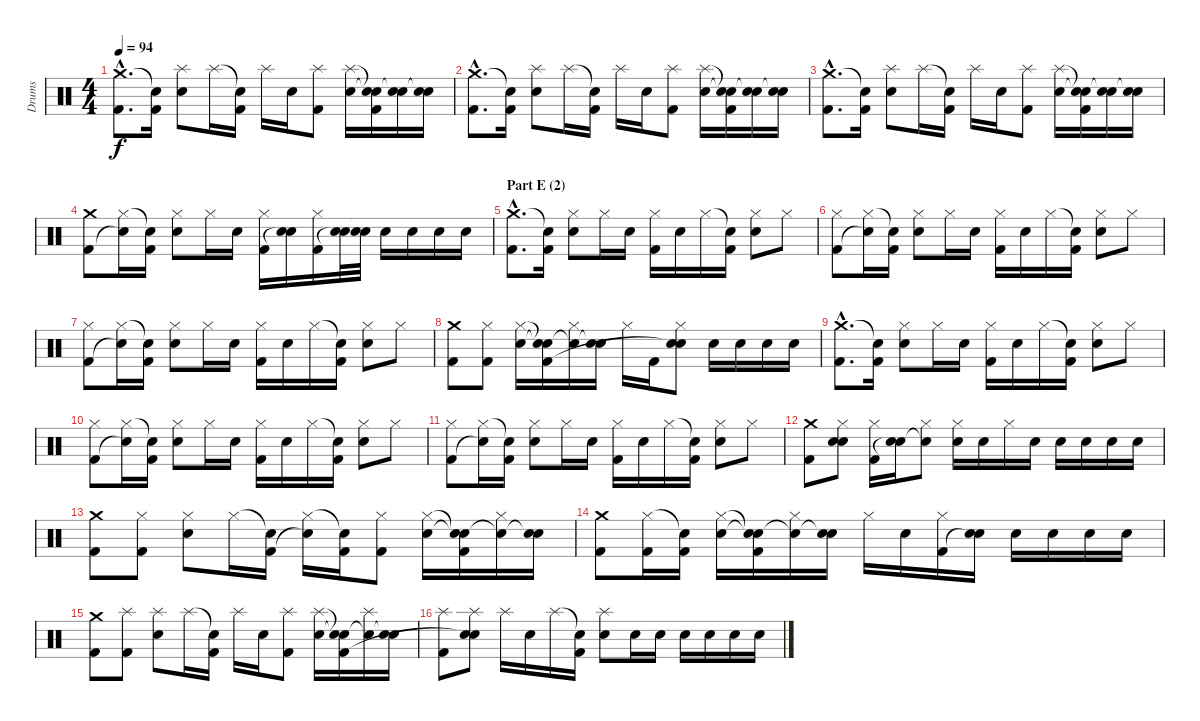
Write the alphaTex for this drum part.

\track ("Drums" "Drums") {instrument percussion}
\staff {score}
\articulation defaults
\ts (4 4)
\tempo 94
\clef neutral
\ks c
("Crash medium (hit)"{hac} "Kick (hit) 2"{hac}).8{d dy f} ("Snare (hit)"{t} "Kick (hit) 2").16 ("Splash (hit)" "Electric Snare (hit)").8 "Splash (hit)".16 ("Snare (hit)"{t} "Kick (hit) 2").16 "Splash (hit)".16 "Electric Snare (hit)".16 ("Splash (hit)" "Kick (hit) 2").8 ("Splash (hit)" "Electric Snare (hit)").16 ("Snare (hit)"{t} "Snare (hit)"{t} "Kick (hit) 2").16 ("Electric Snare (hit)" "Snare (hit)"{t}).16 ("Electric Snare (hit)" "Snare (hit)"{t}).16 |
("Crash medium (hit)"{hac} "Kick (hit) 2"{hac}).8{d} ("Snare (hit)"{t} "Kick (hit) 2").16 ("Splash (hit)" "Electric Snare (hit)").8 "Splash (hit)".16 ("Snare (hit)"{t} "Kick (hit) 2").16 "Splash (hit)".16 "Electric Snare (hit)".16 ("Splash (hit)" "Kick (hit) 2").8 ("Splash (hit)" "Electric Snare (hit)").16 ("Snare (hit)"{t} "Snare (hit)"{t} "Kick (hit) 2").16 ("Electric Snare (hit)" "Snare (hit)"{t}).16 ("Electric Snare (hit)" "Snare (hit)"{t}).16 |
("Crash medium (hit)"{hac} "Kick (hit) 2"{hac}).8{d} ("Snare (hit)"{t} "Kick (hit) 2").16 ("Splash (hit)" "Electric Snare (hit)").8 "Splash (hit)".16 ("Snare (hit)"{t} "Kick (hit) 2").16 "Splash (hit)".16 "Electric Snare (hit)".16 ("Splash (hit)" "Kick (hit) 2").8 ("Splash (hit)" "Electric Snare (hit)").16 ("Snare (hit)"{t} "Snare (hit)"{t} "Kick (hit) 2").16 ("Electric Snare (hit)" "Snare (hit)"{t}).16 ("Electric Snare (hit)" "Snare (hit)"{t}).16 |
("Crash medium (hit)" "Kick (hit) 2").8 ("Hi-Hat (closed)" "Snare (hit)"{t}).16 ("Snare (hit)"{t} "Kick (hit) 2").16 ("Hi-Hat (closed)" "Electric Snare (hit)").8 "Hi-Hat (closed)".16 "Electric Snare (hit)".16 ("Hi-Hat (closed)" "Kick (hit) 2").16 ("Electric Snare (hit)" "Snare (hit)"{t}).16 ("Hi-Hat (closed)" "Kick (hit) 2").16 ("Electric Snare (hit)" "Snare (hit)"{t}).32 ("Electric Snare (hit)" "Snare (hit)"{t}).32 "Electric Snare (hit)".16 "Electric Snare (hit)".16 "Electric Snare (hit)".16 "Electric Snare (hit)".16 |
\section ("" "Part E (2)")
("Crash medium (hit)"{hac} "Kick (hit) 2"{hac}).8{d} ("Snare (hit)"{t} "Kick (hit) 2").16 ("Hi-Hat (closed)" "Electric Snare (hit)").8 "Hi-Hat (closed)".16 "Electric Snare (hit)".16 ("Hi-Hat (closed)" "Kick (hit) 2").16 "Electric Snare (hit)".16 "Hi-Hat (closed)".16 ("Snare (hit)"{t} "Kick (hit) 2").16 ("Hi-Hat (closed)" "Electric Snare (hit)").8 "Hi-Hat (closed)".8 |
("Hi-Hat (closed)" "Kick (hit) 2").8 ("Hi-Hat (closed)" "Snare (hit)"{t}).16 ("Snare (hit)"{t} "Kick (hit) 2").16 ("Hi-Hat (closed)" "Electric Snare (hit)").8 "Hi-Hat (closed)".16 "Electric Snare (hit)".16 ("Hi-Hat (closed)" "Kick (hit) 2").16 "Electric Snare (hit)".16 "Hi-Hat (closed)".16 ("Snare (hit)"{t} "Kick (hit) 2").16 ("Hi-Hat (closed)" "Electric Snare (hit)").8 "Hi-Hat (closed)".8 |
("Hi-Hat (closed)" "Kick (hit) 2").8 ("Hi-Hat (closed)" "Snare (hit)"{t}).16 ("Snare (hit)"{t} "Kick (hit) 2").16 ("Hi-Hat (closed)" "Electric Snare (hit)").8 "Hi-Hat (closed)".16 "Electric Snare (hit)".16 ("Hi-Hat (closed)" "Kick (hit) 2").16 "Electric Snare (hit)".16 "Hi-Hat (closed)".16 ("Snare (hit)"{t} "Kick (hit) 2").16 ("Hi-Hat (closed)" "Electric Snare (hit)").8 "Hi-Hat (closed)".8 |
("Crash medium (hit)" "Kick (hit) 2").8 ("Hi-Hat (closed)" "Kick (hit) 2").8 ("Hi-Hat (closed)" "Electric Snare (hit)").16 ("Snare (hit)"{t} "Snare (hit)"{t} "Kick (hit) 2").16 ("Hi-Hat (closed)" "Snare (hit)"{t}).16 ("Electric Snare (hit)" "Snare (hit)"{t}).16 "Hi-Hat (closed)".16 "Kick (hit) 2".16 ("Hi-Hat (closed)" "Electric Snare (hit)" "Snare (hit)"{t}).8 "Electric Snare (hit)".16 "Electric Snare (hit)".16 "Electric Snare (hit)".16 "Electric Snare (hit)".16 |
("Crash medium (hit)"{hac} "Kick (hit) 2"{hac}).8{d} ("Snare (hit)"{t} "Kick (hit) 2").16 ("Hi-Hat (closed)" "Electric Snare (hit)").8 "Hi-Hat (closed)".16 "Electric Snare (hit)".16 ("Hi-Hat (closed)" "Kick (hit) 2").16 "Electric Snare (hit)".16 "Hi-Hat (closed)".16 ("Snare (hit)"{t} "Kick (hit) 2").16 ("Hi-Hat (closed)" "Electric Snare (hit)").8 "Hi-Hat (closed)".8 |
("Hi-Hat (closed)" "Kick (hit) 2").8 ("Hi-Hat (closed)" "Snare (hit)"{t}).16 ("Snare (hit)"{t} "Kick (hit) 2").16 ("Hi-Hat (closed)" "Electric Snare (hit)").8 "Hi-Hat (closed)".16 "Electric Snare (hit)".16 ("Hi-Hat (closed)" "Kick (hit) 2").16 "Electric Snare (hit)".16 "Hi-Hat (closed)".16 ("Snare (hit)"{t} "Kick (hit) 2").16 ("Hi-Hat (closed)" "Electric Snare (hit)").8 "Hi-Hat (closed)".8 |
("Hi-Hat (closed)" "Kick (hit) 2").8 ("Hi-Hat (closed)" "Snare (hit)"{t}).16 ("Snare (hit)"{t} "Kick (hit) 2").16 ("Hi-Hat (closed)" "Electric Snare (hit)").8 "Hi-Hat (closed)".16 "Electric Snare (hit)".16 ("Hi-Hat (closed)" "Kick (hit) 2").16 "Electric Snare (hit)".16 "Hi-Hat (closed)".16 ("Snare (hit)"{t} "Kick (hit) 2").16 ("Hi-Hat (closed)" "Electric Snare (hit)").8 "Hi-Hat (closed)".8 |
("Crash medium (hit)" "Kick (hit) 2").8 ("Hi-Hat (closed)" "Electric Snare (hit)" "Snare (hit)").8 ("Hi-Hat (closed)" "Kick (hit) 2").16 ("Electric Snare (hit)" "Snare (hit)"{t}).16 ("Hi-Hat (closed)" "Snare (hit)"{t}).8 ("Hi-Hat (closed)" "Electric Snare (hit)").16 "Electric Snare (hit)".16 "Hi-Hat (closed)".16 "Electric Snare (hit)".16 "Electric Snare (hit)".16 "Electric Snare (hit)".16 "Electric Snare (hit)".16 "Electric Snare (hit)".16 |
("Crash medium (hit)" "Kick (hit) 2").8 ("Hi-Hat (closed)" "Kick (hit) 2").8 ("Hi-Hat (closed)" "Electric Snare (hit)").8 "Hi-Hat (closed)".16 ("Snare (hit)"{t} "Kick (hit) 2").16 ("Hi-Hat (closed)" "Snare (hit)"{t}).16 ("Snare (hit)"{t} "Kick (hit) 2").16 ("Hi-Hat (closed)" "Kick (hit) 2").8 ("Hi-Hat (closed)" "Electric Snare (hit)").16 ("Snare (hit)"{t} "Snare (hit)"{t} "Kick (hit) 2").16 ("Hi-Hat (closed)" "Snare (hit)"{t}).16 ("Electric Snare (hit)" "Snare (hit)"{t}).16 |
("Crash medium (hit)" "Kick (hit) 2").8 ("Hi-Hat (closed)" "Kick (hit) 2").16 ("Snare (hit)"{t} "Kick (hit) 2").16 ("Hi-Hat (closed)" "Electric Snare (hit)").16 ("Snare (hit)"{t} "Snare (hit)"{t} "Kick (hit) 2").16 ("Hi-Hat (closed)" "Snare (hit)"{t}).16 ("Electric Snare (hit)" "Snare (hit)"{t}).16 "Hi-Hat (closed)".16 "Electric Snare (hit)".16 ("Hi-Hat (closed)" "Kick (hit) 2").16 ("Electric Snare (hit)" "Snare (hit)"{t}).16 "Electric Snare (hit)".16 "Electric Snare (hit)".16 "Electric Snare (hit)".16 "Electric Snare (hit)".16 |
("Crash medium (hit)" "Kick (hit) 2").8 ("Splash (hit)" "Kick (hit) 2").8 ("Splash (hit)" "Electric Snare (hit)").8 "Splash (hit)".16 ("Snare (hit)"{t} "Kick (hit) 2").16 "Splash (hit)".16 "Electric Snare (hit)".16 ("Splash (hit)" "Kick (hit) 2").8 ("Splash (hit)" "Electric Snare (hit)").16 ("Snare (hit)"{t} "Snare (hit)"{t} "Kick (hit) 2").16 ("Splash (hit)" "Snare (hit)"{t}).16 ("Electric Snare (hit)" "Snare (hit)"{t}).16 |
("Splash (hit)" "Kick (hit) 2").8 ("Splash (hit)" "Electric Snare (hit)" "Snare (hit)"{t}).8 "Splash (hit)".16 "Electric Snare (hit)".16 "Splash (hit)".16 ("Snare (hit)"{t} "Kick (hit) 2").16 ("Splash (hit)" "Electric Snare (hit)").8 "Electric Snare (hit)".16 "Electric Snare (hit)".16 "Electric Snare (hit)".16 "Electric Snare (hit)".16 "Electric Snare (hit)".16 "Electric Snare (hit)".16
